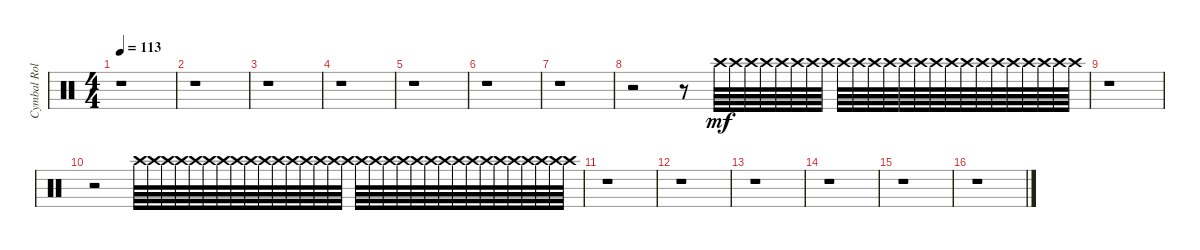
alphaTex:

\track ("Cymbal Rolls" "Cymbal Rol") {instrument percussion}
\staff {score}
\articulation defaults
\ts (4 4)
\tempo 113
\clef neutral
\ks c
r.1{dy mf} |
r.1 |
r.1 |
r.1 |
r.1 |
r.1 |
r.1 |
r.2 r.8 "Crash high (hit)".64 "Crash high (hit)".64 "Crash high (hit)".64 "Crash high (hit)".64 "Crash high (hit)".64 "Crash high (hit)".64 "Crash high (hit)".64 "Crash high (hit)".64 "Crash high (hit)".64 "Crash high (hit)".64 "Crash high (hit)".64 "Crash high (hit)".64 "Crash high (hit)".64 "Crash high (hit)".64 "Crash high (hit)".64 "Crash high (hit)".64 "Crash high (hit)".64 "Crash high (hit)".64 "Crash high (hit)".64 "Crash high (hit)".64 "Crash high (hit)".64 "Crash high (hit)".64 "Crash high (hit)".64 "Crash high (hit)".64 |
r.1 |
r.2 "Crash high (hit)".64 "Crash high (hit)".64 "Crash high (hit)".64 "Crash high (hit)".64 "Crash high (hit)".64 "Crash high (hit)".64 "Crash high (hit)".64 "Crash high (hit)".64 "Crash high (hit)".64 "Crash high (hit)".64 "Crash high (hit)".64 "Crash high (hit)".64 "Crash high (hit)".64 "Crash high (hit)".64 "Crash high (hit)".64 "Crash high (hit)".64 "Crash high (hit)".64 "Crash high (hit)".64 "Crash high (hit)".64 "Crash high (hit)".64 "Crash high (hit)".64 "Crash high (hit)".64 "Crash high (hit)".64 "Crash high (hit)".64 "Crash high (hit)".64 "Crash high (hit)".64 "Crash high (hit)".64 "Crash high (hit)".64 "Crash high (hit)".64 "Crash high (hit)".64 "Crash high (hit)".64 "Crash high (hit)".64 |
r.1 |
r.1 |
r.1 |
r.1 |
r.1 |
r.1
